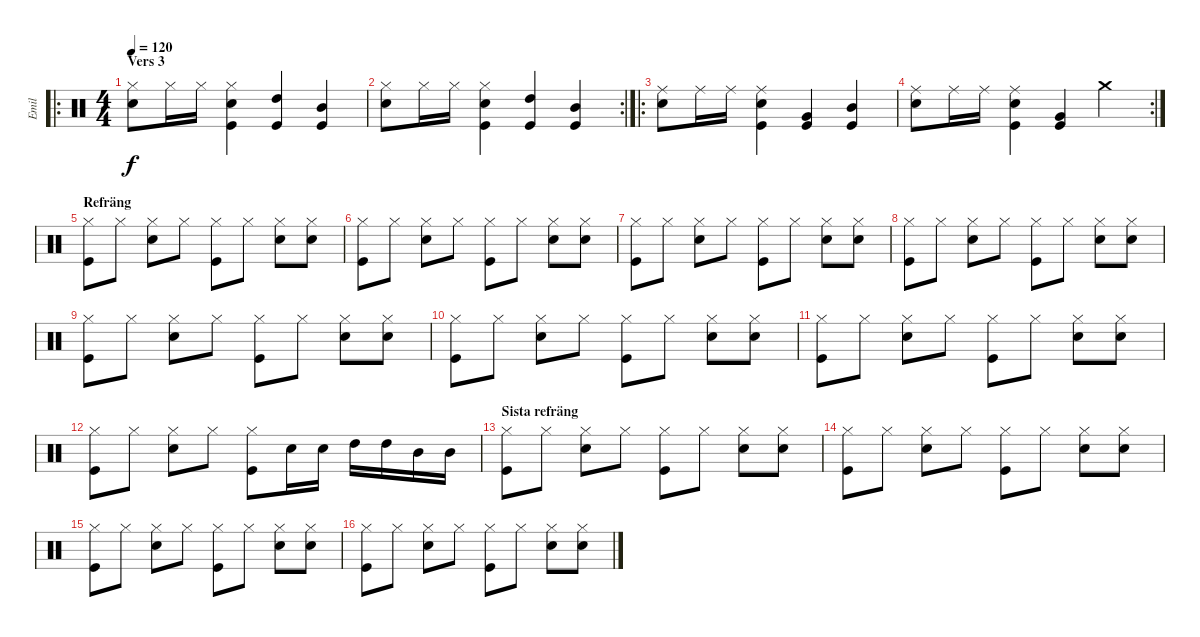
\track ("Emil" "Emil") {instrument percussion}
\staff {score}
\articulation defaults
\ro
\ts (4 4)
\section ("" "Vers 3")
\tempo 120
\clef neutral
\ks c
("Hi-Hat (closed)" "Electric Snare (hit)").8{dy f} "Hi-Hat (closed)".16 "Hi-Hat (closed)".16 ("Hi-Hat (closed)" "Electric Snare (hit)" "Kick (hit)").4 ("High Tom (hit)" "Kick (hit)").4 ("Mid Tom (hit)" "Kick (hit)").4 |
\rc 2
("Hi-Hat (closed)" "Electric Snare (hit)").8 "Hi-Hat (closed)".16 "Hi-Hat (closed)".16 ("Hi-Hat (closed)" "Electric Snare (hit)" "Kick (hit)").4 ("High Tom (hit)" "Kick (hit)").4 ("Mid Tom (hit)" "Kick (hit)").4 |
\ro
("Ride (middle)" "Electric Snare (hit)").8 "Ride (middle)".16 "Ride (middle)".16 ("Ride (middle)" "Electric Snare (hit)" "Kick (hit)").4 ("Very Low Tom (hit)" "Kick (hit)").4 ("Mid Tom (hit)" "Kick (hit)").4 |
\rc 2
("Ride (middle)" "Electric Snare (hit)").8 "Ride (middle)".16 "Ride (middle)".16 ("Ride (middle)" "Electric Snare (hit)" "Kick (hit)").4 ("Very Low Tom (hit)" "Kick (hit)").4 "Crash medium (hit)".4 |
\section ("" "Refräng")
("Hi-Hat (closed)" "Kick (hit)").8 "Hi-Hat (closed)".8 ("Hi-Hat (closed)" "Electric Snare (hit)").8 "Hi-Hat (closed)".8 ("Hi-Hat (closed)" "Kick (hit)").8 "Hi-Hat (closed)".8 ("Hi-Hat (closed)" "Electric Snare (hit)").8 ("Hi-Hat (closed)" "Electric Snare (hit)").8 |
("Hi-Hat (closed)" "Kick (hit)").8 "Hi-Hat (closed)".8 ("Hi-Hat (closed)" "Electric Snare (hit)").8 "Hi-Hat (closed)".8 ("Hi-Hat (closed)" "Kick (hit)").8 "Hi-Hat (closed)".8 ("Hi-Hat (closed)" "Electric Snare (hit)").8 ("Hi-Hat (closed)" "Electric Snare (hit)").8 |
("Hi-Hat (closed)" "Kick (hit)").8 "Hi-Hat (closed)".8 ("Hi-Hat (closed)" "Electric Snare (hit)").8 "Hi-Hat (closed)".8 ("Hi-Hat (closed)" "Kick (hit)").8 "Hi-Hat (closed)".8 ("Hi-Hat (closed)" "Electric Snare (hit)").8 ("Hi-Hat (closed)" "Electric Snare (hit)").8 |
("Hi-Hat (closed)" "Kick (hit)").8 "Hi-Hat (closed)".8 ("Hi-Hat (closed)" "Electric Snare (hit)").8 "Hi-Hat (closed)".8 ("Hi-Hat (closed)" "Kick (hit)").8 "Hi-Hat (closed)".8 ("Hi-Hat (closed)" "Electric Snare (hit)").8 ("Hi-Hat (closed)" "Electric Snare (hit)").8 |
("Hi-Hat (closed)" "Kick (hit)").8 "Hi-Hat (closed)".8 ("Hi-Hat (closed)" "Electric Snare (hit)").8 "Hi-Hat (closed)".8 ("Hi-Hat (closed)" "Kick (hit)").8 "Hi-Hat (closed)".8 ("Hi-Hat (closed)" "Electric Snare (hit)").8 ("Hi-Hat (closed)" "Electric Snare (hit)").8 |
("Hi-Hat (closed)" "Kick (hit)").8 "Hi-Hat (closed)".8 ("Hi-Hat (closed)" "Electric Snare (hit)").8 "Hi-Hat (closed)".8 ("Hi-Hat (closed)" "Kick (hit)").8 "Hi-Hat (closed)".8 ("Hi-Hat (closed)" "Electric Snare (hit)").8 ("Hi-Hat (closed)" "Electric Snare (hit)").8 |
("Hi-Hat (closed)" "Kick (hit)").8 "Hi-Hat (closed)".8 ("Hi-Hat (closed)" "Electric Snare (hit)").8 "Hi-Hat (closed)".8 ("Hi-Hat (closed)" "Kick (hit)").8 "Hi-Hat (closed)".8 ("Hi-Hat (closed)" "Electric Snare (hit)").8 ("Hi-Hat (closed)" "Electric Snare (hit)").8 |
("Hi-Hat (closed)" "Kick (hit)").8 "Hi-Hat (closed)".8 ("Hi-Hat (closed)" "Electric Snare (hit)").8 "Hi-Hat (closed)".8 ("Hi-Hat (closed)" "Kick (hit)").8 "Electric Snare (hit)".16 "Electric Snare (hit)".16 "High Tom (hit)".16 "High Tom (hit)".16 "Mid Tom (hit)".16 "Mid Tom (hit)".16 |
\section ("" "Sista refräng")
("Hi-Hat (closed)" "Kick (hit)").8 "Hi-Hat (closed)".8 ("Hi-Hat (closed)" "Electric Snare (hit)").8 "Hi-Hat (closed)".8 ("Hi-Hat (closed)" "Kick (hit)").8 "Hi-Hat (closed)".8 ("Hi-Hat (closed)" "Electric Snare (hit)").8 ("Hi-Hat (closed)" "Electric Snare (hit)").8 |
("Hi-Hat (closed)" "Kick (hit)").8 "Hi-Hat (closed)".8 ("Hi-Hat (closed)" "Electric Snare (hit)").8 "Hi-Hat (closed)".8 ("Hi-Hat (closed)" "Kick (hit)").8 "Hi-Hat (closed)".8 ("Hi-Hat (closed)" "Electric Snare (hit)").8 ("Hi-Hat (closed)" "Electric Snare (hit)").8 |
("Hi-Hat (closed)" "Kick (hit)").8 "Hi-Hat (closed)".8 ("Hi-Hat (closed)" "Electric Snare (hit)").8 "Hi-Hat (closed)".8 ("Hi-Hat (closed)" "Kick (hit)").8 "Hi-Hat (closed)".8 ("Hi-Hat (closed)" "Electric Snare (hit)").8 ("Hi-Hat (closed)" "Electric Snare (hit)").8 |
("Hi-Hat (closed)" "Kick (hit)").8 "Hi-Hat (closed)".8 ("Hi-Hat (closed)" "Electric Snare (hit)").8 "Hi-Hat (closed)".8 ("Hi-Hat (closed)" "Kick (hit)").8 "Hi-Hat (closed)".8 ("Hi-Hat (closed)" "Electric Snare (hit)").8 ("Hi-Hat (closed)" "Electric Snare (hit)").8
